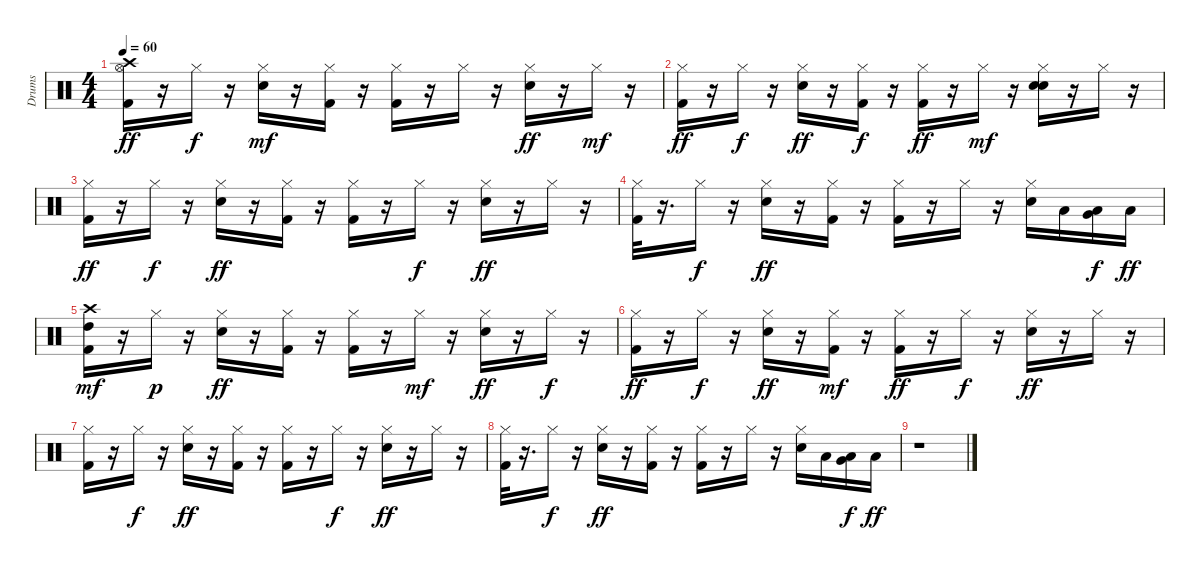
\track ("Drums" "Drums") {instrument percussion}
\staff {score}
\articulation defaults
\ts (4 4)
\tempo 60
\clef neutral
\ks c
("Kick (hit) 2" "Hi-Hat (open)" "Crash high (hit)").16{dy ff} r.16 "Hi-Hat (closed)".16{dy f} r.16 ("Hi-Hat (closed)" "Snare (hit) 2").16{dy mf} r.16 ("Hi-Hat (closed)" "Kick (hit) 2").16 r.16 ("Hi-Hat (closed)" "Kick (hit) 2").16 r.16 "Hi-Hat (closed)".16 r.16 ("Hi-Hat (closed)" "Snare (hit) 2").16{dy ff} r.16 "Hi-Hat (closed)".16{dy mf} r.16 |
("Hi-Hat (closed)" "Kick (hit) 2").16{dy ff} r.16 "Hi-Hat (closed)".16{dy f} r.16 ("Hi-Hat (closed)" "Snare (hit) 2").16{dy ff} r.16 ("Kick (hit) 2" "Hi-Hat (closed)").16{dy f} r.16 ("Kick (hit) 2" "Hi-Hat (closed)").16{dy ff} r.16 "Hi-Hat (closed)".16{dy mf} r.16 ("Hi-Hat (closed)" "Snare (hit) 2" "Electric Snare (hit)").16 r.16 "Hi-Hat (closed)".16 r.16 |
("Hi-Hat (closed)" "Kick (hit) 2").16{dy ff} r.16 "Hi-Hat (closed)".16{dy f} r.16 ("Hi-Hat (closed)" "Snare (hit) 2").16{dy ff} r.16 ("Hi-Hat (closed)" "Kick (hit) 2").16 r.16 ("Hi-Hat (closed)" "Kick (hit) 2").16 r.16 "Hi-Hat (closed)".16{dy f} r.16 ("Hi-Hat (closed)" "Snare (hit) 2").16{dy ff} r.16 "Hi-Hat (closed)".16 r.16 |
("Kick (hit) 2" "Hi-Hat (closed)").32 r.16{d} "Hi-Hat (closed)".16{dy f} r.16 ("Hi-Hat (closed)" "Snare (hit) 2").16{dy ff} r.16 ("Hi-Hat (closed)" "Kick (hit) 2").16 r.16 ("Hi-Hat (closed)" "Kick (hit) 2").16 r.16 "Hi-Hat (closed)".16 r.16 ("Hi-Hat (closed)" "Snare (hit) 2").16 "Low Tom (hit)".16 ("Low Tom (hit)" "Very Low Tom (hit)").16{dy f} "Low Floor Tom (hit)".16{dy ff} |
("Crash high (hit)" "Kick (hit) 2" "High Tom (hit)").16{dy mf} r.16 "Hi-Hat (closed)".16{dy p} r.16 ("Snare (hit) 2" "Hi-Hat (closed)").16{dy ff} r.16 ("Hi-Hat (closed)" "Kick (hit) 2").16 r.16 ("Hi-Hat (closed)" "Kick (hit) 2").16 r.16 "Hi-Hat (closed)".16{dy mf} r.16 ("Hi-Hat (closed)" "Snare (hit) 2").16{dy ff} r.16 "Hi-Hat (closed)".16{dy f} r.16 |
("Hi-Hat (closed)" "Kick (hit) 2").16{dy ff} r.16 "Hi-Hat (closed)".16{dy f} r.16 ("Hi-Hat (closed)" "Snare (hit) 2").16{dy ff} r.16 ("Hi-Hat (closed)" "Kick (hit) 2").16{dy mf} r.16 ("Hi-Hat (closed)" "Kick (hit) 2").16{dy ff} r.16 "Hi-Hat (closed)".16{dy f} r.16 ("Hi-Hat (closed)" "Snare (hit) 2").16{dy ff} r.16 "Hi-Hat (closed)".16 r.16 |
("Hi-Hat (closed)" "Kick (hit) 2").16 r.16 "Hi-Hat (closed)".16{dy f} r.16 ("Snare (hit) 2" "Hi-Hat (closed)").16{dy ff} r.16 ("Hi-Hat (closed)" "Kick (hit) 2").16 r.16 ("Kick (hit) 2" "Hi-Hat (closed)").16 r.16 "Hi-Hat (closed)".16{dy f} r.16 ("Hi-Hat (closed)" "Snare (hit) 2").16{dy ff} r.16 "Hi-Hat (closed)".16 r.16 |
("Kick (hit) 2" "Hi-Hat (closed)").32 r.16{d} "Hi-Hat (closed)".16{dy f} r.16 ("Hi-Hat (closed)" "Snare (hit) 2").16{dy ff} r.16 ("Hi-Hat (closed)" "Kick (hit) 2").16 r.16 ("Hi-Hat (closed)" "Kick (hit) 2").16 r.16 "Hi-Hat (closed)".16 r.16 ("Hi-Hat (closed)" "Snare (hit) 2").16 "Low Tom (hit)".16 ("Low Tom (hit)" "Very Low Tom (hit)").16{dy f} "Low Floor Tom (hit)".16{dy ff} |
r.1
